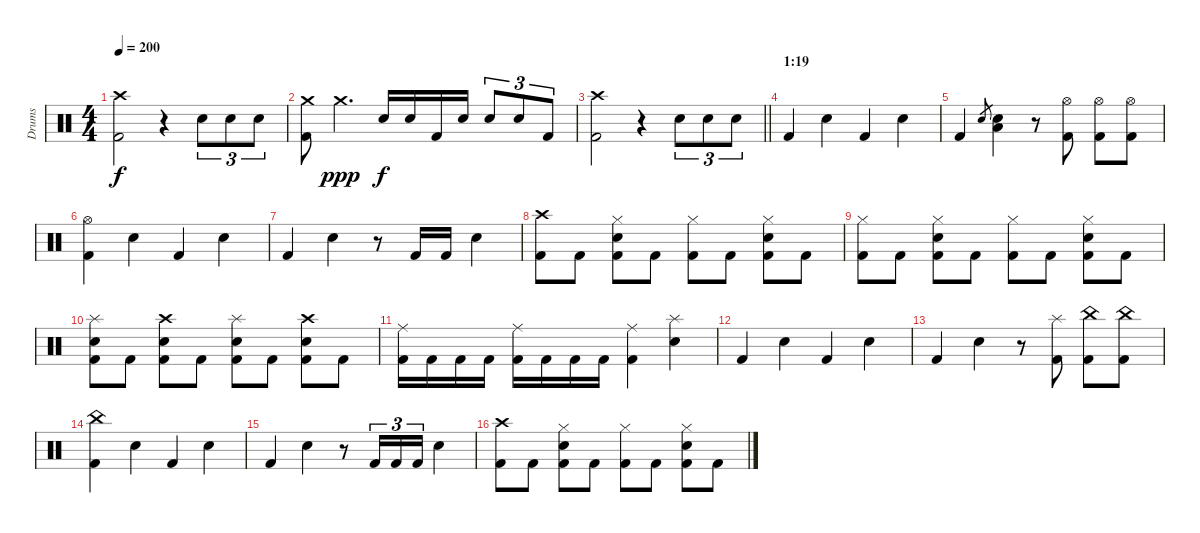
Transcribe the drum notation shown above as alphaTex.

\track ("Drums" "Drums") {instrument percussion}
\staff {score}
\articulation defaults
\ts (4 4)
\tempo 200
\clef neutral
\ks c
("Crash high (hit)" "Kick (hit) 2").2{dy f} r.4 "Snare (hit) 2".8{tu (3 2)} "Snare (hit) 2".8{tu (3 2)} "Snare (hit) 2".8{tu (3 2)} |
("Crash medium (hit)" "Kick (hit) 2").8 "Crash medium (hit)".4{d dy ppp} "Snare (hit) 2".16{dy f} "Snare (hit) 2".16 "Kick (hit) 2".16 "Snare (hit) 2".16 "Snare (hit) 2".8{tu (3 2)} "Snare (hit) 2".8{tu (3 2)} "Kick (hit) 2".8{tu (3 2)} |
\barLineRight lightlight
("Crash high (hit)" "Kick (hit) 2").2 r.4 "Snare (hit) 2".8{tu (3 2)} "Snare (hit) 2".8{tu (3 2)} "Snare (hit) 2".8{tu (3 2)} |
\section ("" "1:19")
"Kick (hit) 2".4 "Snare (hit) 2".4 "Kick (hit) 2".4 "Snare (hit) 2".4 |
"Kick (hit) 2".4 "Snare (hit) 2".8{gr} ("Snare (hit) 2" "Low Tom (hit)").4 r.8 ("Hi-Hat (open)" "Kick (hit) 2").8 ("Hi-Hat (open)" "Kick (hit) 2").8 ("Hi-Hat (open)" "Kick (hit) 2").8 |
("Hi-Hat (open)" "Kick (hit) 2").4 "Snare (hit) 2".4 "Kick (hit) 2".4 "Snare (hit) 2".4 |
"Kick (hit) 2".4 "Snare (hit) 2".4 r.8 "Kick (hit) 2".16 "Kick (hit) 2".16 "Snare (hit) 2".4 |
("Crash high (hit)" "Kick (hit) 2").8 "Kick (hit) 2".8 ("Hi-Hat (closed)" "Snare (hit) 2" "Kick (hit) 2").8 "Kick (hit) 2".8 ("Hi-Hat (closed)" "Kick (hit) 2").8 "Kick (hit) 2".8 ("Hi-Hat (closed)" "Snare (hit) 2" "Kick (hit) 2").8 "Kick (hit) 2".8 |
("Hi-Hat (closed)" "Kick (hit) 2").8 "Kick (hit) 2".8 ("Hi-Hat (closed)" "Snare (hit) 2" "Kick (hit) 2").8 "Kick (hit) 2".8 ("Hi-Hat (closed)" "Kick (hit) 2").8 "Kick (hit) 2".8 ("Hi-Hat (closed)" "Snare (hit) 2" "Kick (hit) 2").8 "Kick (hit) 2".8 |
("Splash (hit)" "Snare (hit) 2" "Kick (hit) 2").8 "Kick (hit) 2".8 ("Crash high (hit)" "Snare (hit) 2" "Kick (hit) 2").8 "Kick (hit) 2".8 ("Splash (hit)" "Snare (hit) 2" "Kick (hit) 2").8 "Kick (hit) 2".8 ("Crash high (hit)" "Snare (hit) 2" "Kick (hit) 2").8 "Kick (hit) 2".8 |
("Ride (middle)" "Kick (hit) 2").16 "Kick (hit) 2".16 "Kick (hit) 2".16 "Kick (hit) 2".16 ("Ride (middle)" "Kick (hit) 2").16 "Kick (hit) 2".16 "Kick (hit) 2".16 "Kick (hit) 2".16 ("Ride (middle)" "Kick (hit) 2").4 ("Splash (hit)" "Snare (hit) 2").4 |
"Kick (hit) 2".4 "Snare (hit) 2".4 "Kick (hit) 2".4 "Snare (hit) 2".4 |
"Kick (hit) 2".4 "Snare (hit) 2".4 r.8 ("Splash (hit)" "Kick (hit) 2").8 ("China (hit)" "Kick (hit) 2").8 ("China (hit)" "Kick (hit) 2").8 |
("China (hit)" "Kick (hit) 2").4 "Snare (hit) 2".4 "Kick (hit) 2".4 "Snare (hit) 2".4 |
"Kick (hit) 2".4 "Snare (hit) 2".4 r.8 "Kick (hit) 2".16{tu (3 2)} "Kick (hit) 2".16{tu (3 2)} "Kick (hit) 2".16{tu (3 2)} "Snare (hit) 2".4 |
("Crash high (hit)" "Kick (hit) 2").8 "Kick (hit) 2".8 ("Hi-Hat (closed)" "Snare (hit) 2" "Kick (hit) 2").8 "Kick (hit) 2".8 ("Hi-Hat (closed)" "Kick (hit) 2").8 "Kick (hit) 2".8 ("Hi-Hat (closed)" "Snare (hit) 2" "Kick (hit) 2").8 "Kick (hit) 2".8
